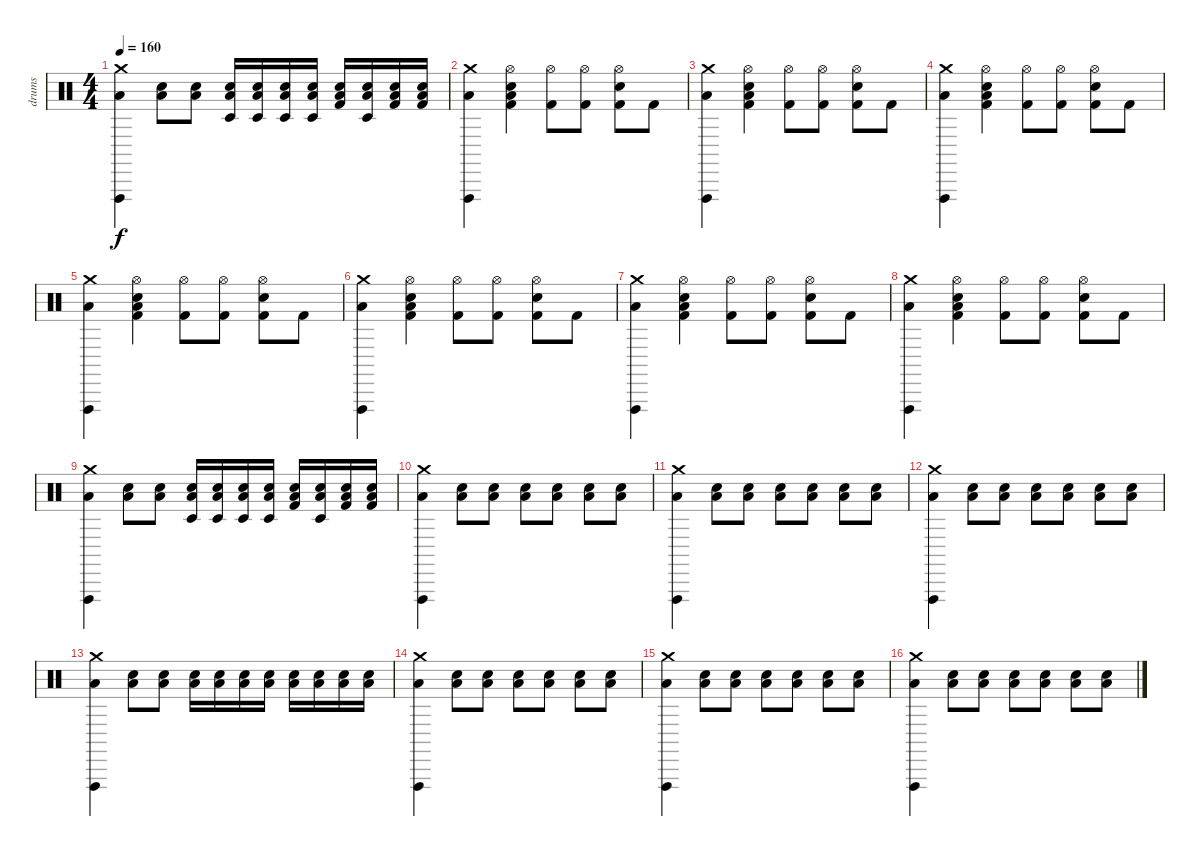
\track ("drums" "drums") {instrument percussion}
\staff {score}
\articulation defaults
\ts (4 4)
\tempo 160
\clef neutral
\ks c
("Crash medium (hit)" "Vibraslap (hit)" "Low Floor Tom (hit)").4{dy f} ("Electric Snare (hit)" "Low Floor Tom (hit)").8 ("Electric Snare (hit)" "Low Floor Tom (hit)").8 ("Electric Snare (hit)" "Low Floor Tom (hit)" "Timbale low (hit)").16 ("Electric Snare (hit)" "Low Floor Tom (hit)" "Timbale low (hit)").16 ("Electric Snare (hit)" "Low Floor Tom (hit)" "Timbale low (hit)").16 ("Electric Snare (hit)" "Low Floor Tom (hit)" "Timbale low (hit)").16 ("Electric Snare (hit)" "Low Floor Tom (hit)" "Kick (hit) 2").16 ("Electric Snare (hit)" "Low Floor Tom (hit)" "Timbale low (hit)").16 ("Electric Snare (hit)" "Low Floor Tom (hit)" "Kick (hit) 2").16 ("Electric Snare (hit)" "Low Floor Tom (hit)" "Kick (hit) 2").16 |
("Crash medium (hit)" "Vibraslap (hit)" "Low Floor Tom (hit)").4 ("Hi-Hat (open)" "Electric Snare (hit)" "Low Floor Tom (hit)" "Kick (hit) 2").4 ("Hi-Hat (open)" "Kick (hit) 2").8 ("Hi-Hat (open)" "Kick (hit) 2").8 ("Hi-Hat (open)" "Electric Snare (hit)" "Kick (hit) 2").8 "Kick (hit) 2".8 |
("Crash medium (hit)" "Vibraslap (hit)" "Low Floor Tom (hit)").4 ("Hi-Hat (open)" "Electric Snare (hit)" "Low Floor Tom (hit)" "Kick (hit) 2").4 ("Hi-Hat (open)" "Kick (hit) 2").8 ("Hi-Hat (open)" "Kick (hit) 2").8 ("Hi-Hat (open)" "Electric Snare (hit)" "Kick (hit) 2").8 "Kick (hit) 2".8 |
("Crash medium (hit)" "Vibraslap (hit)" "Low Floor Tom (hit)").4 ("Hi-Hat (open)" "Electric Snare (hit)" "Low Floor Tom (hit)" "Kick (hit) 2").4 ("Hi-Hat (open)" "Kick (hit) 2").8 ("Hi-Hat (open)" "Kick (hit) 2").8 ("Hi-Hat (open)" "Electric Snare (hit)" "Kick (hit) 2").8 "Kick (hit) 2".8 |
("Crash medium (hit)" "Vibraslap (hit)" "Low Floor Tom (hit)").4 ("Hi-Hat (open)" "Electric Snare (hit)" "Low Floor Tom (hit)" "Kick (hit) 2").4 ("Hi-Hat (open)" "Kick (hit) 2").8 ("Hi-Hat (open)" "Kick (hit) 2").8 ("Hi-Hat (open)" "Electric Snare (hit)" "Kick (hit) 2").8 "Kick (hit) 2".8 |
("Crash medium (hit)" "Vibraslap (hit)" "Low Floor Tom (hit)").4 ("Hi-Hat (open)" "Electric Snare (hit)" "Low Floor Tom (hit)" "Kick (hit) 2").4 ("Hi-Hat (open)" "Kick (hit) 2").8 ("Hi-Hat (open)" "Kick (hit) 2").8 ("Hi-Hat (open)" "Electric Snare (hit)" "Kick (hit) 2").8 "Kick (hit) 2".8 |
("Crash medium (hit)" "Vibraslap (hit)" "Low Floor Tom (hit)").4 ("Hi-Hat (open)" "Electric Snare (hit)" "Low Floor Tom (hit)" "Kick (hit) 2").4 ("Hi-Hat (open)" "Kick (hit) 2").8 ("Hi-Hat (open)" "Kick (hit) 2").8 ("Hi-Hat (open)" "Electric Snare (hit)" "Kick (hit) 2").8 "Kick (hit) 2".8 |
("Crash medium (hit)" "Vibraslap (hit)" "Low Floor Tom (hit)").4 ("Hi-Hat (open)" "Electric Snare (hit)" "Low Floor Tom (hit)" "Kick (hit) 2").4 ("Hi-Hat (open)" "Kick (hit) 2").8 ("Hi-Hat (open)" "Kick (hit) 2").8 ("Hi-Hat (open)" "Electric Snare (hit)" "Kick (hit) 2").8 "Kick (hit) 2".8 |
("Crash medium (hit)" "Vibraslap (hit)" "Low Floor Tom (hit)").4 ("Electric Snare (hit)" "Low Floor Tom (hit)").8 ("Electric Snare (hit)" "Low Floor Tom (hit)").8 ("Electric Snare (hit)" "Low Floor Tom (hit)" "Timbale low (hit)").16 ("Electric Snare (hit)" "Low Floor Tom (hit)" "Timbale low (hit)").16 ("Electric Snare (hit)" "Low Floor Tom (hit)" "Timbale low (hit)").16 ("Electric Snare (hit)" "Low Floor Tom (hit)" "Timbale low (hit)").16 ("Electric Snare (hit)" "Low Floor Tom (hit)" "Kick (hit) 2").16 ("Electric Snare (hit)" "Low Floor Tom (hit)" "Timbale low (hit)").16 ("Electric Snare (hit)" "Low Floor Tom (hit)" "Kick (hit) 2").16 ("Electric Snare (hit)" "Low Floor Tom (hit)" "Kick (hit) 2").16 |
("Crash medium (hit)" "Vibraslap (hit)" "Low Floor Tom (hit)").4 ("Electric Snare (hit)" "Low Floor Tom (hit)").8 ("Electric Snare (hit)" "Low Floor Tom (hit)").8 ("Electric Snare (hit)" "Low Floor Tom (hit)").8 ("Electric Snare (hit)" "Low Floor Tom (hit)").8 ("Electric Snare (hit)" "Low Floor Tom (hit)").8 ("Electric Snare (hit)" "Low Floor Tom (hit)").8 |
("Crash medium (hit)" "Vibraslap (hit)" "Low Floor Tom (hit)").4 ("Electric Snare (hit)" "Low Floor Tom (hit)").8 ("Electric Snare (hit)" "Low Floor Tom (hit)").8 ("Electric Snare (hit)" "Low Floor Tom (hit)").8 ("Electric Snare (hit)" "Low Floor Tom (hit)").8 ("Electric Snare (hit)" "Low Floor Tom (hit)").8 ("Electric Snare (hit)" "Low Floor Tom (hit)").8 |
("Crash medium (hit)" "Vibraslap (hit)" "Low Floor Tom (hit)").4 ("Electric Snare (hit)" "Low Floor Tom (hit)").8 ("Electric Snare (hit)" "Low Floor Tom (hit)").8 ("Electric Snare (hit)" "Low Floor Tom (hit)").8 ("Electric Snare (hit)" "Low Floor Tom (hit)").8 ("Electric Snare (hit)" "Low Floor Tom (hit)").8 ("Electric Snare (hit)" "Low Floor Tom (hit)").8 |
("Crash medium (hit)" "Vibraslap (hit)" "Low Floor Tom (hit)").4 ("Electric Snare (hit)" "Low Floor Tom (hit)").8 ("Electric Snare (hit)" "Low Floor Tom (hit)").8 ("Electric Snare (hit)" "Low Floor Tom (hit)").16 ("Electric Snare (hit)" "Low Floor Tom (hit)").16 ("Electric Snare (hit)" "Low Floor Tom (hit)").16 ("Electric Snare (hit)" "Low Floor Tom (hit)").16 ("Electric Snare (hit)" "Low Floor Tom (hit)").16 ("Electric Snare (hit)" "Low Floor Tom (hit)").16 ("Electric Snare (hit)" "Low Floor Tom (hit)").16 ("Electric Snare (hit)" "Low Floor Tom (hit)").16 |
("Crash medium (hit)" "Vibraslap (hit)" "Low Floor Tom (hit)").4 ("Electric Snare (hit)" "Low Floor Tom (hit)").8 ("Electric Snare (hit)" "Low Floor Tom (hit)").8 ("Electric Snare (hit)" "Low Floor Tom (hit)").8 ("Electric Snare (hit)" "Low Floor Tom (hit)").8 ("Electric Snare (hit)" "Low Floor Tom (hit)").8 ("Electric Snare (hit)" "Low Floor Tom (hit)").8 |
("Crash medium (hit)" "Vibraslap (hit)" "Low Floor Tom (hit)").4 ("Electric Snare (hit)" "Low Floor Tom (hit)").8 ("Electric Snare (hit)" "Low Floor Tom (hit)").8 ("Electric Snare (hit)" "Low Floor Tom (hit)").8 ("Electric Snare (hit)" "Low Floor Tom (hit)").8 ("Electric Snare (hit)" "Low Floor Tom (hit)").8 ("Electric Snare (hit)" "Low Floor Tom (hit)").8 |
("Crash medium (hit)" "Vibraslap (hit)" "Low Floor Tom (hit)").4 ("Electric Snare (hit)" "Low Floor Tom (hit)").8 ("Electric Snare (hit)" "Low Floor Tom (hit)").8 ("Electric Snare (hit)" "Low Floor Tom (hit)").8 ("Electric Snare (hit)" "Low Floor Tom (hit)").8 ("Electric Snare (hit)" "Low Floor Tom (hit)").8 ("Electric Snare (hit)" "Low Floor Tom (hit)").8
